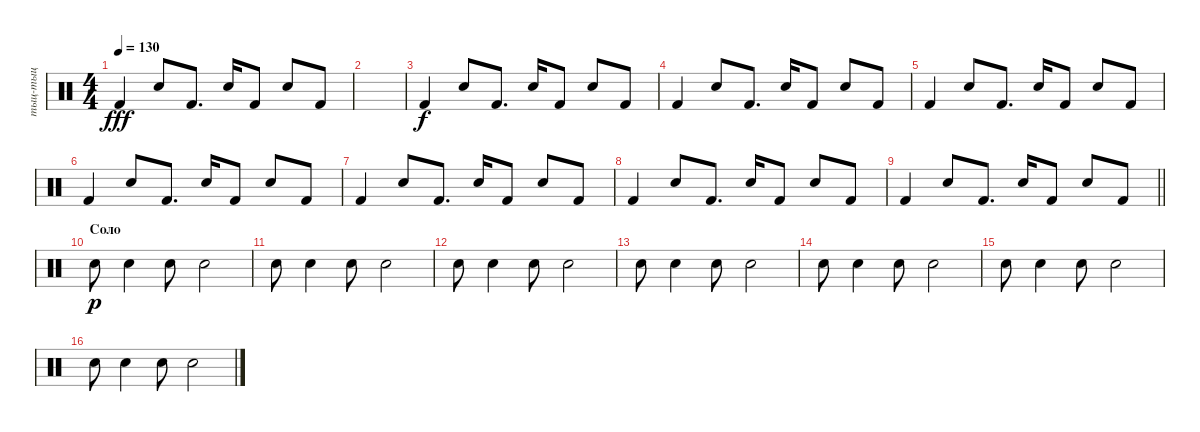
\track ("тыц-тыц" "тыц-тыц") {instrument percussion}
\staff {score}
\articulation defaults
\ts (4 4)
\tempo 130
\clef neutral
\ks c "Kick (hit) 2".4{dy fff} "Snare (hit) 2".8 "Kick (hit) 2".8{d} "Snare (hit) 2".16 "Kick (hit) 2".8 "Snare (hit) 2".8 "Kick (hit) 2".8
|
|
"Kick (hit) 2".4{dy f} "Snare (hit) 2".8 "Kick (hit) 2".8{d} "Snare (hit) 2".16 "Kick (hit) 2".8 "Snare (hit) 2".8 "Kick (hit) 2".8 |
"Kick (hit) 2".4 "Snare (hit) 2".8 "Kick (hit) 2".8{d} "Snare (hit) 2".16 "Kick (hit) 2".8 "Snare (hit) 2".8 "Kick (hit) 2".8 |
"Kick (hit) 2".4 "Snare (hit) 2".8 "Kick (hit) 2".8{d} "Snare (hit) 2".16 "Kick (hit) 2".8 "Snare (hit) 2".8 "Kick (hit) 2".8 |
"Kick (hit) 2".4 "Snare (hit) 2".8 "Kick (hit) 2".8{d} "Snare (hit) 2".16 "Kick (hit) 2".8 "Snare (hit) 2".8 "Kick (hit) 2".8 |
"Kick (hit) 2".4 "Snare (hit) 2".8 "Kick (hit) 2".8{d} "Snare (hit) 2".16 "Kick (hit) 2".8 "Snare (hit) 2".8 "Kick (hit) 2".8 |
"Kick (hit) 2".4 "Snare (hit) 2".8 "Kick (hit) 2".8{d} "Snare (hit) 2".16 "Kick (hit) 2".8 "Snare (hit) 2".8 "Kick (hit) 2".8 |
\barLineRight lightlight "Kick (hit) 2".4 "Snare (hit) 2".8 "Kick (hit) 2".8{d} "Snare (hit) 2".16 "Kick (hit) 2".8 "Snare (hit) 2".8 "Kick (hit) 2".8
|
\section ("" "Соло")
"Snare (hit) 2".8{dy p} "Snare (hit) 2".4 "Snare (hit) 2".8 "Snare (hit) 2".2 |
"Snare (hit) 2".8 "Snare (hit) 2".4 "Snare (hit) 2".8 "Snare (hit) 2".2 |
"Snare (hit) 2".8 "Snare (hit) 2".4 "Snare (hit) 2".8 "Snare (hit) 2".2 |
"Snare (hit) 2".8 "Snare (hit) 2".4 "Snare (hit) 2".8 "Snare (hit) 2".2 |
"Snare (hit) 2".8 "Snare (hit) 2".4 "Snare (hit) 2".8 "Snare (hit) 2".2 |
"Snare (hit) 2".8 "Snare (hit) 2".4 "Snare (hit) 2".8 "Snare (hit) 2".2 |
"Snare (hit) 2".8 "Snare (hit) 2".4 "Snare (hit) 2".8 "Snare (hit) 2".2
